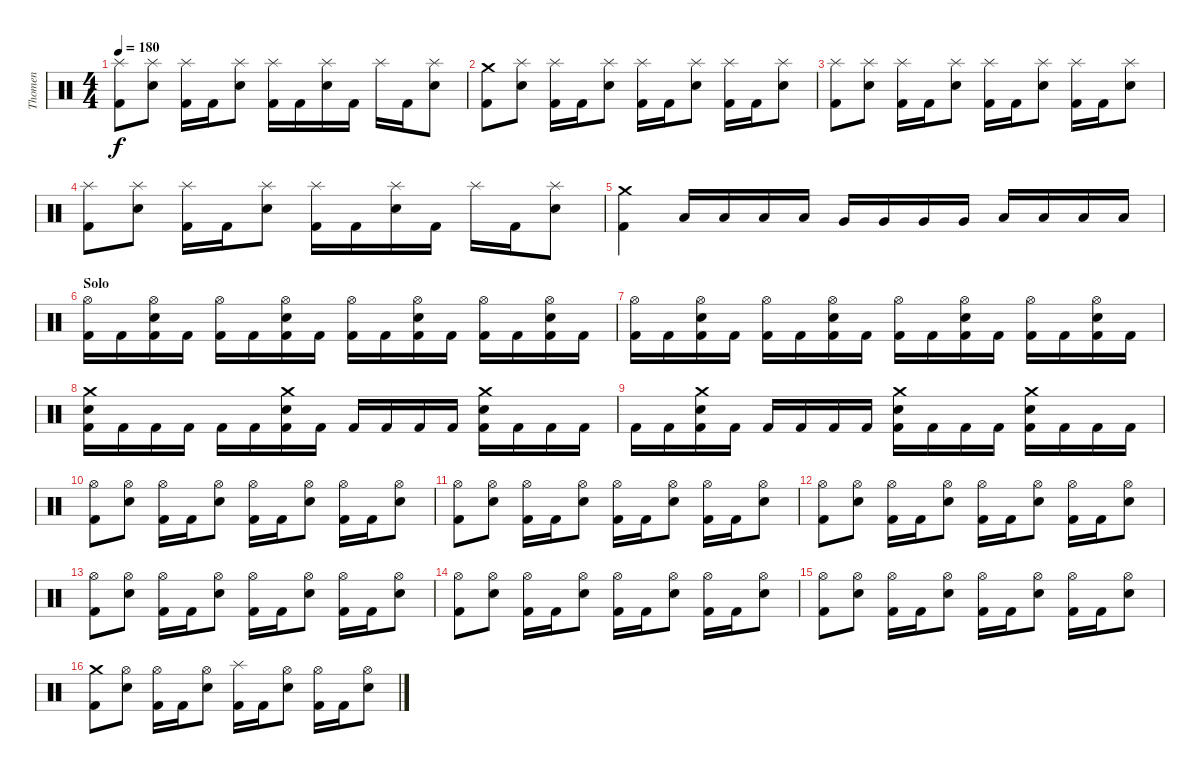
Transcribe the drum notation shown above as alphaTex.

\track ("Thomen" "Thomen") {instrument percussion}
\staff {score}
\articulation defaults
\ts (4 4)
\tempo 180
\clef neutral
\ks c
("Splash (hit)" "Kick (hit) 2").8{dy f} ("Splash (hit)" "Electric Snare (hit)").8 ("Splash (hit)" "Kick (hit) 2").16 "Kick (hit) 2".16 ("Splash (hit)" "Electric Snare (hit)").8 ("Splash (hit)" "Kick (hit) 2").16 "Kick (hit) 2".16 ("Splash (hit)" "Electric Snare (hit)").16 "Kick (hit) 2".16 "Splash (hit)".16 "Kick (hit) 2".16 ("Splash (hit)" "Electric Snare (hit)").8 |
("Crash medium (hit)" "Kick (hit) 2").8 ("Splash (hit)" "Electric Snare (hit)").8 ("Splash (hit)" "Kick (hit) 2").16 "Kick (hit) 2".16 ("Splash (hit)" "Electric Snare (hit)").8 ("Splash (hit)" "Kick (hit) 2").16 "Kick (hit) 2".16 ("Splash (hit)" "Electric Snare (hit)").8 ("Splash (hit)" "Kick (hit) 2").16 "Kick (hit) 2".16 ("Splash (hit)" "Electric Snare (hit)").8 |
("Splash (hit)" "Kick (hit) 2").8 ("Splash (hit)" "Electric Snare (hit)").8 ("Splash (hit)" "Kick (hit) 2").16 "Kick (hit) 2".16 ("Splash (hit)" "Electric Snare (hit)").8 ("Splash (hit)" "Kick (hit) 2").16 "Kick (hit) 2".16 ("Splash (hit)" "Electric Snare (hit)").8 ("Splash (hit)" "Kick (hit) 2").16 "Kick (hit) 2".16 ("Splash (hit)" "Electric Snare (hit)").8 |
("Splash (hit)" "Kick (hit) 2").8 ("Splash (hit)" "Electric Snare (hit)").8 ("Splash (hit)" "Kick (hit) 2").16 "Kick (hit) 2".16 ("Splash (hit)" "Electric Snare (hit)").8 ("Splash (hit)" "Kick (hit) 2").16 "Kick (hit) 2".16 ("Splash (hit)" "Electric Snare (hit)").16 "Kick (hit) 2".16 "Splash (hit)".16 "Kick (hit) 2".16 ("Splash (hit)" "Electric Snare (hit)").8 |
("Crash medium (hit)" "Kick (hit) 2").4 "Low Tom (hit)".16 "Low Tom (hit)".16 "Low Tom (hit)".16 "Low Tom (hit)".16 "Very Low Tom (hit)".16 "Very Low Tom (hit)".16 "Very Low Tom (hit)".16 "Very Low Tom (hit)".16 "Low Floor Tom (hit)".16 "Low Floor Tom (hit)".16 "Low Floor Tom (hit)".16 "Low Floor Tom (hit)".16 |
\section ("" "Solo")
("Kick (hit) 2" "Hi-Hat (open)").16 "Kick (hit) 2".16 ("Kick (hit) 2" "Hi-Hat (open)" "Electric Snare (hit)").16 "Kick (hit) 2".16 ("Kick (hit) 2" "Hi-Hat (open)").16 "Kick (hit) 2".16 ("Kick (hit) 2" "Hi-Hat (open)" "Electric Snare (hit)").16 "Kick (hit) 2".16 ("Kick (hit) 2" "Hi-Hat (open)").16 "Kick (hit) 2".16 ("Kick (hit) 2" "Hi-Hat (open)" "Electric Snare (hit)").16 "Kick (hit) 2".16 ("Kick (hit) 2" "Hi-Hat (open)").16 "Kick (hit) 2".16 ("Kick (hit) 2" "Hi-Hat (open)" "Electric Snare (hit)").16 "Kick (hit) 2".16 |
("Kick (hit) 2" "Hi-Hat (open)").16 "Kick (hit) 2".16 ("Kick (hit) 2" "Hi-Hat (open)" "Electric Snare (hit)").16 "Kick (hit) 2".16 ("Kick (hit) 2" "Hi-Hat (open)").16 "Kick (hit) 2".16 ("Kick (hit) 2" "Hi-Hat (open)" "Electric Snare (hit)").16 "Kick (hit) 2".16 ("Kick (hit) 2" "Hi-Hat (open)").16 "Kick (hit) 2".16 ("Kick (hit) 2" "Hi-Hat (open)" "Electric Snare (hit)").16 "Kick (hit) 2".16 ("Kick (hit) 2" "Hi-Hat (open)").16 "Kick (hit) 2".16 ("Kick (hit) 2" "Hi-Hat (open)" "Electric Snare (hit)").16 "Kick (hit) 2".16 |
("Kick (hit) 2" "Crash medium (hit)" "Electric Snare (hit)").16 "Kick (hit) 2".16 "Kick (hit) 2".16 "Kick (hit) 2".16 "Kick (hit) 2".16 "Kick (hit) 2".16 ("Kick (hit) 2" "Crash medium (hit)" "Electric Snare (hit)").16 "Kick (hit) 2".16 "Kick (hit) 2".16 "Kick (hit) 2".16 "Kick (hit) 2".16 "Kick (hit) 2".16 ("Kick (hit) 2" "Crash medium (hit)" "Electric Snare (hit)").16 "Kick (hit) 2".16 "Kick (hit) 2".16 "Kick (hit) 2".16 |
"Kick (hit) 2".16 "Kick (hit) 2".16 ("Kick (hit) 2" "Crash medium (hit)" "Electric Snare (hit)").16 "Kick (hit) 2".16 "Kick (hit) 2".16 "Kick (hit) 2".16 "Kick (hit) 2".16 "Kick (hit) 2".16 ("Kick (hit) 2" "Crash medium (hit)" "Electric Snare (hit)").16 "Kick (hit) 2".16 "Kick (hit) 2".16 "Kick (hit) 2".16 ("Kick (hit) 2" "Crash medium (hit)" "Electric Snare (hit)").16 "Kick (hit) 2".16 "Kick (hit) 2".16 "Kick (hit) 2".16 |
("Hi-Hat (open)" "Kick (hit) 2").8 ("Hi-Hat (open)" "Electric Snare (hit)").8 ("Hi-Hat (open)" "Kick (hit) 2").16 "Kick (hit) 2".16 ("Hi-Hat (open)" "Electric Snare (hit)").8 ("Hi-Hat (open)" "Kick (hit) 2").16 "Kick (hit) 2".16 ("Hi-Hat (open)" "Electric Snare (hit)").8 ("Hi-Hat (open)" "Kick (hit) 2").16 "Kick (hit) 2".16 ("Hi-Hat (open)" "Electric Snare (hit)").8 |
("Hi-Hat (open)" "Kick (hit) 2").8 ("Hi-Hat (open)" "Electric Snare (hit)").8 ("Hi-Hat (open)" "Kick (hit) 2").16 "Kick (hit) 2".16 ("Hi-Hat (open)" "Electric Snare (hit)").8 ("Hi-Hat (open)" "Kick (hit) 2").16 "Kick (hit) 2".16 ("Hi-Hat (open)" "Electric Snare (hit)").8 ("Hi-Hat (open)" "Kick (hit) 2").16 "Kick (hit) 2".16 ("Hi-Hat (open)" "Electric Snare (hit)").8 |
("Hi-Hat (open)" "Kick (hit) 2").8 ("Hi-Hat (open)" "Electric Snare (hit)").8 ("Hi-Hat (open)" "Kick (hit) 2").16 "Kick (hit) 2".16 ("Hi-Hat (open)" "Electric Snare (hit)").8 ("Hi-Hat (open)" "Kick (hit) 2").16 "Kick (hit) 2".16 ("Hi-Hat (open)" "Electric Snare (hit)").8 ("Hi-Hat (open)" "Kick (hit) 2").16 "Kick (hit) 2".16 ("Hi-Hat (open)" "Electric Snare (hit)").8 |
("Hi-Hat (open)" "Kick (hit) 2").8 ("Hi-Hat (open)" "Electric Snare (hit)").8 ("Hi-Hat (open)" "Kick (hit) 2").16 "Kick (hit) 2".16 ("Hi-Hat (open)" "Electric Snare (hit)").8 ("Hi-Hat (open)" "Kick (hit) 2").16 "Kick (hit) 2".16 ("Hi-Hat (open)" "Electric Snare (hit)").8 ("Hi-Hat (open)" "Kick (hit) 2").16 "Kick (hit) 2".16 ("Hi-Hat (open)" "Electric Snare (hit)").8 |
("Hi-Hat (open)" "Kick (hit) 2").8 ("Hi-Hat (open)" "Electric Snare (hit)").8 ("Hi-Hat (open)" "Kick (hit) 2").16 "Kick (hit) 2".16 ("Hi-Hat (open)" "Electric Snare (hit)").8 ("Hi-Hat (open)" "Kick (hit) 2").16 "Kick (hit) 2".16 ("Hi-Hat (open)" "Electric Snare (hit)").8 ("Hi-Hat (open)" "Kick (hit) 2").16 "Kick (hit) 2".16 ("Hi-Hat (open)" "Electric Snare (hit)").8 |
("Hi-Hat (open)" "Kick (hit) 2").8 ("Hi-Hat (open)" "Electric Snare (hit)").8 ("Hi-Hat (open)" "Kick (hit) 2").16 "Kick (hit) 2".16 ("Hi-Hat (open)" "Electric Snare (hit)").8 ("Hi-Hat (open)" "Kick (hit) 2").16 "Kick (hit) 2".16 ("Hi-Hat (open)" "Electric Snare (hit)").8 ("Hi-Hat (open)" "Kick (hit) 2").16 "Kick (hit) 2".16 ("Hi-Hat (open)" "Electric Snare (hit)").8 |
("Crash medium (hit)" "Kick (hit) 2").8 ("Hi-Hat (open)" "Electric Snare (hit)").8 ("Hi-Hat (open)" "Kick (hit) 2").16 "Kick (hit) 2".16 ("Hi-Hat (open)" "Electric Snare (hit)").8 ("Splash (hit)" "Kick (hit) 2").16 "Kick (hit) 2".16 ("Hi-Hat (open)" "Electric Snare (hit)").8 ("Hi-Hat (open)" "Kick (hit) 2").16 "Kick (hit) 2".16 ("Hi-Hat (open)" "Electric Snare (hit)").8
